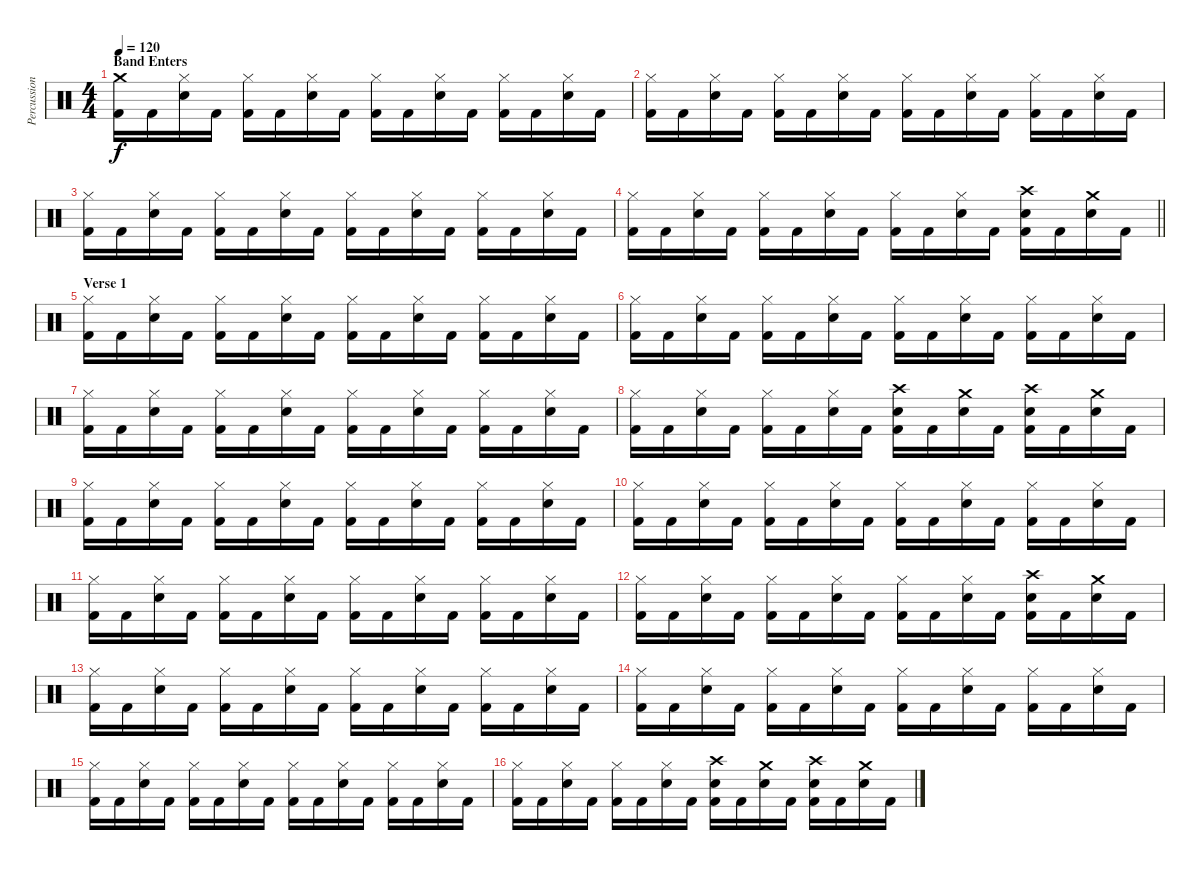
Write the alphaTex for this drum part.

\track ("Percussion" "Percussion") {instrument percussion}
\staff {score}
\articulation defaults
\ts (4 4)
\section ("" "Band Enters")
\tempo 120
\clef neutral
\ks c
("Crash medium (hit)" "Kick (hit) 2").16{dy f} "Kick (hit) 2".16 ("Electric Snare (hit)" "Hi-Hat (closed)").16 "Kick (hit) 2".16 ("Hi-Hat (closed)" "Kick (hit) 2").16 "Kick (hit) 2".16 ("Electric Snare (hit)" "Hi-Hat (closed)").16 "Kick (hit) 2".16 ("Hi-Hat (closed)" "Kick (hit) 2").16 "Kick (hit) 2".16 ("Electric Snare (hit)" "Hi-Hat (closed)").16 "Kick (hit) 2".16 ("Hi-Hat (closed)" "Kick (hit) 2").16 "Kick (hit) 2".16 ("Electric Snare (hit)" "Hi-Hat (closed)").16 "Kick (hit) 2".16 |
("Hi-Hat (closed)" "Kick (hit) 2").16 "Kick (hit) 2".16 ("Electric Snare (hit)" "Hi-Hat (closed)").16 "Kick (hit) 2".16 ("Hi-Hat (closed)" "Kick (hit) 2").16 "Kick (hit) 2".16 ("Electric Snare (hit)" "Hi-Hat (closed)").16 "Kick (hit) 2".16 ("Hi-Hat (closed)" "Kick (hit) 2").16 "Kick (hit) 2".16 ("Electric Snare (hit)" "Hi-Hat (closed)").16 "Kick (hit) 2".16 ("Hi-Hat (closed)" "Kick (hit) 2").16 "Kick (hit) 2".16 ("Electric Snare (hit)" "Hi-Hat (closed)").16 "Kick (hit) 2".16 |
("Hi-Hat (closed)" "Kick (hit) 2").16 "Kick (hit) 2".16 ("Electric Snare (hit)" "Hi-Hat (closed)").16 "Kick (hit) 2".16 ("Hi-Hat (closed)" "Kick (hit) 2").16 "Kick (hit) 2".16 ("Electric Snare (hit)" "Hi-Hat (closed)").16 "Kick (hit) 2".16 ("Hi-Hat (closed)" "Kick (hit) 2").16 "Kick (hit) 2".16 ("Electric Snare (hit)" "Hi-Hat (closed)").16 "Kick (hit) 2".16 ("Hi-Hat (closed)" "Kick (hit) 2").16 "Kick (hit) 2".16 ("Electric Snare (hit)" "Hi-Hat (closed)").16 "Kick (hit) 2".16 |
\barLineRight lightlight
("Hi-Hat (closed)" "Kick (hit) 2").16 "Kick (hit) 2".16 ("Electric Snare (hit)" "Hi-Hat (closed)").16 "Kick (hit) 2".16 ("Hi-Hat (closed)" "Kick (hit) 2").16 "Kick (hit) 2".16 ("Electric Snare (hit)" "Hi-Hat (closed)").16 "Kick (hit) 2".16 ("Hi-Hat (closed)" "Kick (hit) 2").16 "Kick (hit) 2".16 ("Electric Snare (hit)" "Hi-Hat (closed)").16 "Kick (hit) 2".16 ("Crash high (hit)" "Electric Snare (hit)" "Kick (hit) 2").16 "Kick (hit) 2".16 ("Crash medium (hit)" "Electric Snare (hit)").16 "Kick (hit) 2".16 |
\section ("" "Verse 1")
("Hi-Hat (closed)" "Kick (hit) 2").16 "Kick (hit) 2".16 ("Electric Snare (hit)" "Hi-Hat (closed)").16 "Kick (hit) 2".16 ("Hi-Hat (closed)" "Kick (hit) 2").16 "Kick (hit) 2".16 ("Electric Snare (hit)" "Hi-Hat (closed)").16 "Kick (hit) 2".16 ("Hi-Hat (closed)" "Kick (hit) 2").16 "Kick (hit) 2".16 ("Electric Snare (hit)" "Hi-Hat (closed)").16 "Kick (hit) 2".16 ("Hi-Hat (closed)" "Kick (hit) 2").16 "Kick (hit) 2".16 ("Electric Snare (hit)" "Hi-Hat (closed)").16 "Kick (hit) 2".16 |
("Hi-Hat (closed)" "Kick (hit) 2").16 "Kick (hit) 2".16 ("Electric Snare (hit)" "Hi-Hat (closed)").16 "Kick (hit) 2".16 ("Hi-Hat (closed)" "Kick (hit) 2").16 "Kick (hit) 2".16 ("Electric Snare (hit)" "Hi-Hat (closed)").16 "Kick (hit) 2".16 ("Hi-Hat (closed)" "Kick (hit) 2").16 "Kick (hit) 2".16 ("Electric Snare (hit)" "Hi-Hat (closed)").16 "Kick (hit) 2".16 ("Hi-Hat (closed)" "Kick (hit) 2").16 "Kick (hit) 2".16 ("Electric Snare (hit)" "Hi-Hat (closed)").16 "Kick (hit) 2".16 |
("Hi-Hat (closed)" "Kick (hit) 2").16 "Kick (hit) 2".16 ("Electric Snare (hit)" "Hi-Hat (closed)").16 "Kick (hit) 2".16 ("Hi-Hat (closed)" "Kick (hit) 2").16 "Kick (hit) 2".16 ("Electric Snare (hit)" "Hi-Hat (closed)").16 "Kick (hit) 2".16 ("Hi-Hat (closed)" "Kick (hit) 2").16 "Kick (hit) 2".16 ("Electric Snare (hit)" "Hi-Hat (closed)").16 "Kick (hit) 2".16 ("Hi-Hat (closed)" "Kick (hit) 2").16 "Kick (hit) 2".16 ("Electric Snare (hit)" "Hi-Hat (closed)").16 "Kick (hit) 2".16 |
("Hi-Hat (closed)" "Kick (hit) 2").16 "Kick (hit) 2".16 ("Electric Snare (hit)" "Hi-Hat (closed)").16 "Kick (hit) 2".16 ("Hi-Hat (closed)" "Kick (hit) 2").16 "Kick (hit) 2".16 ("Electric Snare (hit)" "Hi-Hat (closed)").16 "Kick (hit) 2".16 ("Crash high (hit)" "Electric Snare (hit)" "Kick (hit) 2").16 "Kick (hit) 2".16 ("Crash medium (hit)" "Electric Snare (hit)").16 "Kick (hit) 2".16 ("Crash high (hit)" "Electric Snare (hit)" "Kick (hit) 2").16 "Kick (hit) 2".16 ("Crash medium (hit)" "Electric Snare (hit)").16 "Kick (hit) 2".16 |
("Hi-Hat (closed)" "Kick (hit) 2").16 "Kick (hit) 2".16 ("Electric Snare (hit)" "Hi-Hat (closed)").16 "Kick (hit) 2".16 ("Hi-Hat (closed)" "Kick (hit) 2").16 "Kick (hit) 2".16 ("Electric Snare (hit)" "Hi-Hat (closed)").16 "Kick (hit) 2".16 ("Hi-Hat (closed)" "Kick (hit) 2").16 "Kick (hit) 2".16 ("Electric Snare (hit)" "Hi-Hat (closed)").16 "Kick (hit) 2".16 ("Hi-Hat (closed)" "Kick (hit) 2").16 "Kick (hit) 2".16 ("Electric Snare (hit)" "Hi-Hat (closed)").16 "Kick (hit) 2".16 |
("Hi-Hat (closed)" "Kick (hit) 2").16 "Kick (hit) 2".16 ("Electric Snare (hit)" "Hi-Hat (closed)").16 "Kick (hit) 2".16 ("Hi-Hat (closed)" "Kick (hit) 2").16 "Kick (hit) 2".16 ("Electric Snare (hit)" "Hi-Hat (closed)").16 "Kick (hit) 2".16 ("Hi-Hat (closed)" "Kick (hit) 2").16 "Kick (hit) 2".16 ("Electric Snare (hit)" "Hi-Hat (closed)").16 "Kick (hit) 2".16 ("Hi-Hat (closed)" "Kick (hit) 2").16 "Kick (hit) 2".16 ("Electric Snare (hit)" "Hi-Hat (closed)").16 "Kick (hit) 2".16 |
("Hi-Hat (closed)" "Kick (hit) 2").16 "Kick (hit) 2".16 ("Electric Snare (hit)" "Hi-Hat (closed)").16 "Kick (hit) 2".16 ("Hi-Hat (closed)" "Kick (hit) 2").16 "Kick (hit) 2".16 ("Electric Snare (hit)" "Hi-Hat (closed)").16 "Kick (hit) 2".16 ("Hi-Hat (closed)" "Kick (hit) 2").16 "Kick (hit) 2".16 ("Electric Snare (hit)" "Hi-Hat (closed)").16 "Kick (hit) 2".16 ("Hi-Hat (closed)" "Kick (hit) 2").16 "Kick (hit) 2".16 ("Electric Snare (hit)" "Hi-Hat (closed)").16 "Kick (hit) 2".16 |
("Hi-Hat (closed)" "Kick (hit) 2").16 "Kick (hit) 2".16 ("Electric Snare (hit)" "Hi-Hat (closed)").16 "Kick (hit) 2".16 ("Hi-Hat (closed)" "Kick (hit) 2").16 "Kick (hit) 2".16 ("Electric Snare (hit)" "Hi-Hat (closed)").16 "Kick (hit) 2".16 ("Hi-Hat (closed)" "Kick (hit) 2").16 "Kick (hit) 2".16 ("Electric Snare (hit)" "Hi-Hat (closed)").16 "Kick (hit) 2".16 ("Crash high (hit)" "Electric Snare (hit)" "Kick (hit) 2").16 "Kick (hit) 2".16 ("Crash medium (hit)" "Electric Snare (hit)").16 "Kick (hit) 2".16 |
("Hi-Hat (closed)" "Kick (hit) 2").16 "Kick (hit) 2".16 ("Electric Snare (hit)" "Hi-Hat (closed)").16 "Kick (hit) 2".16 ("Hi-Hat (closed)" "Kick (hit) 2").16 "Kick (hit) 2".16 ("Electric Snare (hit)" "Hi-Hat (closed)").16 "Kick (hit) 2".16 ("Hi-Hat (closed)" "Kick (hit) 2").16 "Kick (hit) 2".16 ("Electric Snare (hit)" "Hi-Hat (closed)").16 "Kick (hit) 2".16 ("Hi-Hat (closed)" "Kick (hit) 2").16 "Kick (hit) 2".16 ("Electric Snare (hit)" "Hi-Hat (closed)").16 "Kick (hit) 2".16 |
("Hi-Hat (closed)" "Kick (hit) 2").16 "Kick (hit) 2".16 ("Electric Snare (hit)" "Hi-Hat (closed)").16 "Kick (hit) 2".16 ("Hi-Hat (closed)" "Kick (hit) 2").16 "Kick (hit) 2".16 ("Electric Snare (hit)" "Hi-Hat (closed)").16 "Kick (hit) 2".16 ("Hi-Hat (closed)" "Kick (hit) 2").16 "Kick (hit) 2".16 ("Electric Snare (hit)" "Hi-Hat (closed)").16 "Kick (hit) 2".16 ("Hi-Hat (closed)" "Kick (hit) 2").16 "Kick (hit) 2".16 ("Electric Snare (hit)" "Hi-Hat (closed)").16 "Kick (hit) 2".16 |
("Hi-Hat (closed)" "Kick (hit) 2").16 "Kick (hit) 2".16 ("Electric Snare (hit)" "Hi-Hat (closed)").16 "Kick (hit) 2".16 ("Hi-Hat (closed)" "Kick (hit) 2").16 "Kick (hit) 2".16 ("Electric Snare (hit)" "Hi-Hat (closed)").16 "Kick (hit) 2".16 ("Hi-Hat (closed)" "Kick (hit) 2").16 "Kick (hit) 2".16 ("Electric Snare (hit)" "Hi-Hat (closed)").16 "Kick (hit) 2".16 ("Hi-Hat (closed)" "Kick (hit) 2").16 "Kick (hit) 2".16 ("Electric Snare (hit)" "Hi-Hat (closed)").16 "Kick (hit) 2".16 |
("Hi-Hat (closed)" "Kick (hit) 2").16 "Kick (hit) 2".16 ("Electric Snare (hit)" "Hi-Hat (closed)").16 "Kick (hit) 2".16 ("Hi-Hat (closed)" "Kick (hit) 2").16 "Kick (hit) 2".16 ("Electric Snare (hit)" "Hi-Hat (closed)").16 "Kick (hit) 2".16 ("Crash high (hit)" "Electric Snare (hit)" "Kick (hit) 2").16 "Kick (hit) 2".16 ("Crash medium (hit)" "Electric Snare (hit)").16 "Kick (hit) 2".16 ("Crash high (hit)" "Electric Snare (hit)" "Kick (hit) 2").16 "Kick (hit) 2".16 ("Crash medium (hit)" "Electric Snare (hit)").16 "Kick (hit) 2".16
